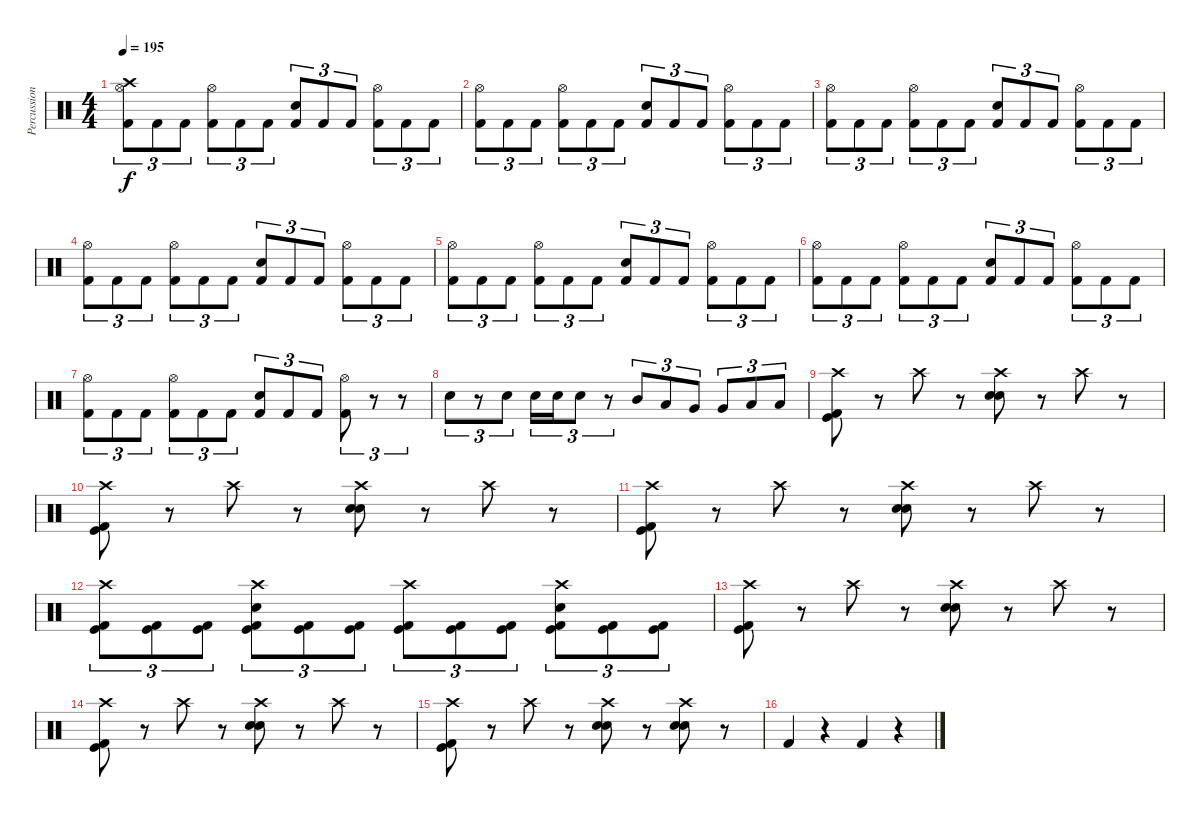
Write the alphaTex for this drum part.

\track ("Percussion" "Percussion") {instrument percussion}
\staff {score}
\articulation defaults
\ts (4 4)
\tempo 195
\clef neutral
\ks c
("Hi-Hat (open)" "Crash high (hit)" "Kick (hit) 2").8{tu (3 2) dy f} "Kick (hit) 2".8{tu (3 2)} "Kick (hit) 2".8{tu (3 2)} ("Hi-Hat (open)" "Kick (hit) 2").8{tu (3 2)} "Kick (hit) 2".8{tu (3 2)} "Kick (hit) 2".8{tu (3 2)} ("Electric Snare (hit)" "Kick (hit) 2").8{tu (3 2)} "Kick (hit) 2".8{tu (3 2)} "Kick (hit) 2".8{tu (3 2)} ("Hi-Hat (open)" "Kick (hit) 2").8{tu (3 2)} "Kick (hit) 2".8{tu (3 2)} "Kick (hit) 2".8{tu (3 2)} |
("Hi-Hat (open)" "Kick (hit) 2").8{tu (3 2)} "Kick (hit) 2".8{tu (3 2)} "Kick (hit) 2".8{tu (3 2)} ("Hi-Hat (open)" "Kick (hit) 2").8{tu (3 2)} "Kick (hit) 2".8{tu (3 2)} "Kick (hit) 2".8{tu (3 2)} ("Electric Snare (hit)" "Kick (hit) 2").8{tu (3 2)} "Kick (hit) 2".8{tu (3 2)} "Kick (hit) 2".8{tu (3 2)} ("Hi-Hat (open)" "Kick (hit) 2").8{tu (3 2)} "Kick (hit) 2".8{tu (3 2)} "Kick (hit) 2".8{tu (3 2)} |
("Hi-Hat (open)" "Kick (hit) 2").8{tu (3 2)} "Kick (hit) 2".8{tu (3 2)} "Kick (hit) 2".8{tu (3 2)} ("Hi-Hat (open)" "Kick (hit) 2").8{tu (3 2)} "Kick (hit) 2".8{tu (3 2)} "Kick (hit) 2".8{tu (3 2)} ("Electric Snare (hit)" "Kick (hit) 2").8{tu (3 2)} "Kick (hit) 2".8{tu (3 2)} "Kick (hit) 2".8{tu (3 2)} ("Hi-Hat (open)" "Kick (hit) 2").8{tu (3 2)} "Kick (hit) 2".8{tu (3 2)} "Kick (hit) 2".8{tu (3 2)} |
("Hi-Hat (open)" "Kick (hit) 2").8{tu (3 2)} "Kick (hit) 2".8{tu (3 2)} "Kick (hit) 2".8{tu (3 2)} ("Hi-Hat (open)" "Kick (hit) 2").8{tu (3 2)} "Kick (hit) 2".8{tu (3 2)} "Kick (hit) 2".8{tu (3 2)} ("Electric Snare (hit)" "Kick (hit) 2").8{tu (3 2)} "Kick (hit) 2".8{tu (3 2)} "Kick (hit) 2".8{tu (3 2)} ("Hi-Hat (open)" "Kick (hit) 2").8{tu (3 2)} "Kick (hit) 2".8{tu (3 2)} "Kick (hit) 2".8{tu (3 2)} |
("Hi-Hat (open)" "Kick (hit) 2").8{tu (3 2)} "Kick (hit) 2".8{tu (3 2)} "Kick (hit) 2".8{tu (3 2)} ("Hi-Hat (open)" "Kick (hit) 2").8{tu (3 2)} "Kick (hit) 2".8{tu (3 2)} "Kick (hit) 2".8{tu (3 2)} ("Electric Snare (hit)" "Kick (hit) 2").8{tu (3 2)} "Kick (hit) 2".8{tu (3 2)} "Kick (hit) 2".8{tu (3 2)} ("Hi-Hat (open)" "Kick (hit) 2").8{tu (3 2)} "Kick (hit) 2".8{tu (3 2)} "Kick (hit) 2".8{tu (3 2)} |
("Hi-Hat (open)" "Kick (hit) 2").8{tu (3 2)} "Kick (hit) 2".8{tu (3 2)} "Kick (hit) 2".8{tu (3 2)} ("Hi-Hat (open)" "Kick (hit) 2").8{tu (3 2)} "Kick (hit) 2".8{tu (3 2)} "Kick (hit) 2".8{tu (3 2)} ("Electric Snare (hit)" "Kick (hit) 2").8{tu (3 2)} "Kick (hit) 2".8{tu (3 2)} "Kick (hit) 2".8{tu (3 2)} ("Hi-Hat (open)" "Kick (hit) 2").8{tu (3 2)} "Kick (hit) 2".8{tu (3 2)} "Kick (hit) 2".8{tu (3 2)} |
("Hi-Hat (open)" "Kick (hit) 2").8{tu (3 2)} "Kick (hit) 2".8{tu (3 2)} "Kick (hit) 2".8{tu (3 2)} ("Hi-Hat (open)" "Kick (hit) 2").8{tu (3 2)} "Kick (hit) 2".8{tu (3 2)} "Kick (hit) 2".8{tu (3 2)} ("Electric Snare (hit)" "Kick (hit) 2").8{tu (3 2)} "Kick (hit) 2".8{tu (3 2)} "Kick (hit) 2".8{tu (3 2)} ("Hi-Hat (open)" "Kick (hit) 2").8{tu (3 2)} r.8{tu (3 2)} r.8{tu (3 2)} |
"Electric Snare (hit)".8{tu (3 2)} r.8{tu (3 2)} "Electric Snare (hit)".8{tu (3 2)} "Electric Snare (hit)".16{tu (3 2)} "Electric Snare (hit)".16{tu (3 2)} "Electric Snare (hit)".8{tu (3 2)} r.8{tu (3 2)} "Mid Tom (hit)".8{tu (3 2)} "Low Tom (hit)".8{tu (3 2)} "Very Low Tom (hit)".8{tu (3 2)} "Very Low Tom (hit)".8{tu (3 2)} "Low Floor Tom (hit)".8{tu (3 2)} "Low Floor Tom (hit)".8{tu (3 2)} |
("Crash high (hit)" "Kick (hit)" "Kick (hit) 2").8 r.8 "Crash high (hit)".8 r.8 ("Crash high (hit)" "Snare (hit) 2" "Electric Snare (hit)").8 r.8 "Crash high (hit)".8 r.8 |
("Crash high (hit)" "Kick (hit)" "Kick (hit) 2").8 r.8 "Crash high (hit)".8 r.8 ("Crash high (hit)" "Snare (hit) 2" "Electric Snare (hit)").8 r.8 "Crash high (hit)".8 r.8 |
("Crash high (hit)" "Kick (hit)" "Kick (hit) 2").8 r.8 "Crash high (hit)".8 r.8 ("Crash high (hit)" "Snare (hit) 2" "Electric Snare (hit)").8 r.8 "Crash high (hit)".8 r.8 |
("Crash high (hit)" "Kick (hit)" "Kick (hit) 2").8{tu (3 2)} ("Kick (hit)" "Kick (hit) 2").8{tu (3 2)} ("Kick (hit)" "Kick (hit) 2").8{tu (3 2)} ("Crash high (hit)" "Electric Snare (hit)" "Kick (hit)" "Kick (hit) 2").8{tu (3 2)} ("Kick (hit)" "Kick (hit) 2").8{tu (3 2)} ("Kick (hit)" "Kick (hit) 2").8{tu (3 2)} ("Crash high (hit)" "Kick (hit)" "Kick (hit) 2").8{tu (3 2)} ("Kick (hit)" "Kick (hit) 2").8{tu (3 2)} ("Kick (hit)" "Kick (hit) 2").8{tu (3 2)} ("Crash high (hit)" "Electric Snare (hit)" "Kick (hit)" "Kick (hit) 2").8{tu (3 2)} ("Kick (hit)" "Kick (hit) 2").8{tu (3 2)} ("Kick (hit)" "Kick (hit) 2").8{tu (3 2)} |
("Crash high (hit)" "Kick (hit)" "Kick (hit) 2").8 r.8 "Crash high (hit)".8 r.8 ("Crash high (hit)" "Snare (hit) 2" "Electric Snare (hit)").8 r.8 "Crash high (hit)".8 r.8 |
("Crash high (hit)" "Kick (hit)" "Kick (hit) 2").8 r.8 "Crash high (hit)".8 r.8 ("Crash high (hit)" "Snare (hit) 2" "Electric Snare (hit)").8 r.8 "Crash high (hit)".8 r.8 |
("Crash high (hit)" "Kick (hit)" "Kick (hit) 2").8 r.8 "Crash high (hit)".8 r.8 ("Crash high (hit)" "Snare (hit) 2" "Electric Snare (hit)").8 r.8 ("Crash high (hit)" "Snare (hit) 2" "Electric Snare (hit)").8 r.8 |
"Kick (hit) 2".4 r.4 "Kick (hit) 2".4 r.4
